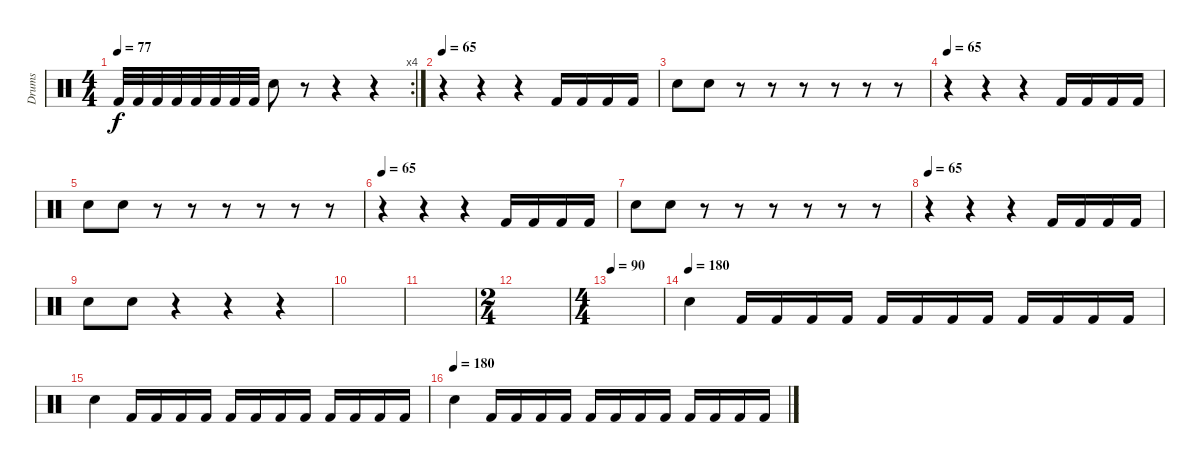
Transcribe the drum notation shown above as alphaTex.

\track ("Drums" "Drums") {instrument percussion}
\staff {score}
\articulation defaults
\rc 4
\ts (4 4)
\tempo 77
\clef neutral
\ks c "Kick (hit) 2".32{dy f} "Kick (hit) 2".32 "Kick (hit) 2".32 "Kick (hit) 2".32 "Kick (hit) 2".32 "Kick (hit) 2".32 "Kick (hit) 2".32 "Kick (hit) 2".32 "Electric Snare (hit)".8
r.8 r.4 r.4 |
\tempo 65
r.4 r.4 r.4 "Kick (hit) 2".16 "Kick (hit) 2".16 "Kick (hit) 2".16 "Kick (hit) 2".16 |
"Electric Snare (hit)".8 "Electric Snare (hit)".8 r.8 r.8 r.8 r.8 r.8 r.8 |
\tempo 65
r.4 r.4 r.4 "Kick (hit) 2".16 "Kick (hit) 2".16 "Kick (hit) 2".16 "Kick (hit) 2".16 |
"Electric Snare (hit)".8 "Electric Snare (hit)".8 r.8 r.8 r.8 r.8 r.8 r.8 |
\tempo 65
r.4 r.4 r.4 "Kick (hit) 2".16 "Kick (hit) 2".16 "Kick (hit) 2".16 "Kick (hit) 2".16 |
"Electric Snare (hit)".8 "Electric Snare (hit)".8 r.8 r.8 r.8 r.8 r.8 r.8 |
\tempo 65
r.4 r.4 r.4 "Kick (hit) 2".16 "Kick (hit) 2".16 "Kick (hit) 2".16 "Kick (hit) 2".16 |
"Electric Snare (hit)".8 "Electric Snare (hit)".8 r.4 r.4 r.4 |
|
|
\ts (2 4)
|
\ts (4 4)
\tempo 90
|
\tempo (180)
"Electric Snare (hit)".4 "Kick (hit) 2".16 "Kick (hit) 2".16 "Kick (hit) 2".16 "Kick (hit) 2".16 "Kick (hit) 2".16 "Kick (hit) 2".16 "Kick (hit) 2".16 "Kick (hit) 2".16 "Kick (hit) 2".16 "Kick (hit) 2".16 "Kick (hit) 2".16 "Kick (hit) 2".16 |
"Electric Snare (hit)".4 "Kick (hit) 2".16 "Kick (hit) 2".16 "Kick (hit) 2".16 "Kick (hit) 2".16 "Kick (hit) 2".16 "Kick (hit) 2".16 "Kick (hit) 2".16 "Kick (hit) 2".16 "Kick (hit) 2".16 "Kick (hit) 2".16 "Kick (hit) 2".16 "Kick (hit) 2".16 |
\tempo (180)
"Electric Snare (hit)".4 "Kick (hit) 2".16 "Kick (hit) 2".16 "Kick (hit) 2".16 "Kick (hit) 2".16 "Kick (hit) 2".16 "Kick (hit) 2".16 "Kick (hit) 2".16 "Kick (hit) 2".16 "Kick (hit) 2".16 "Kick (hit) 2".16 "Kick (hit) 2".16 "Kick (hit) 2".16
